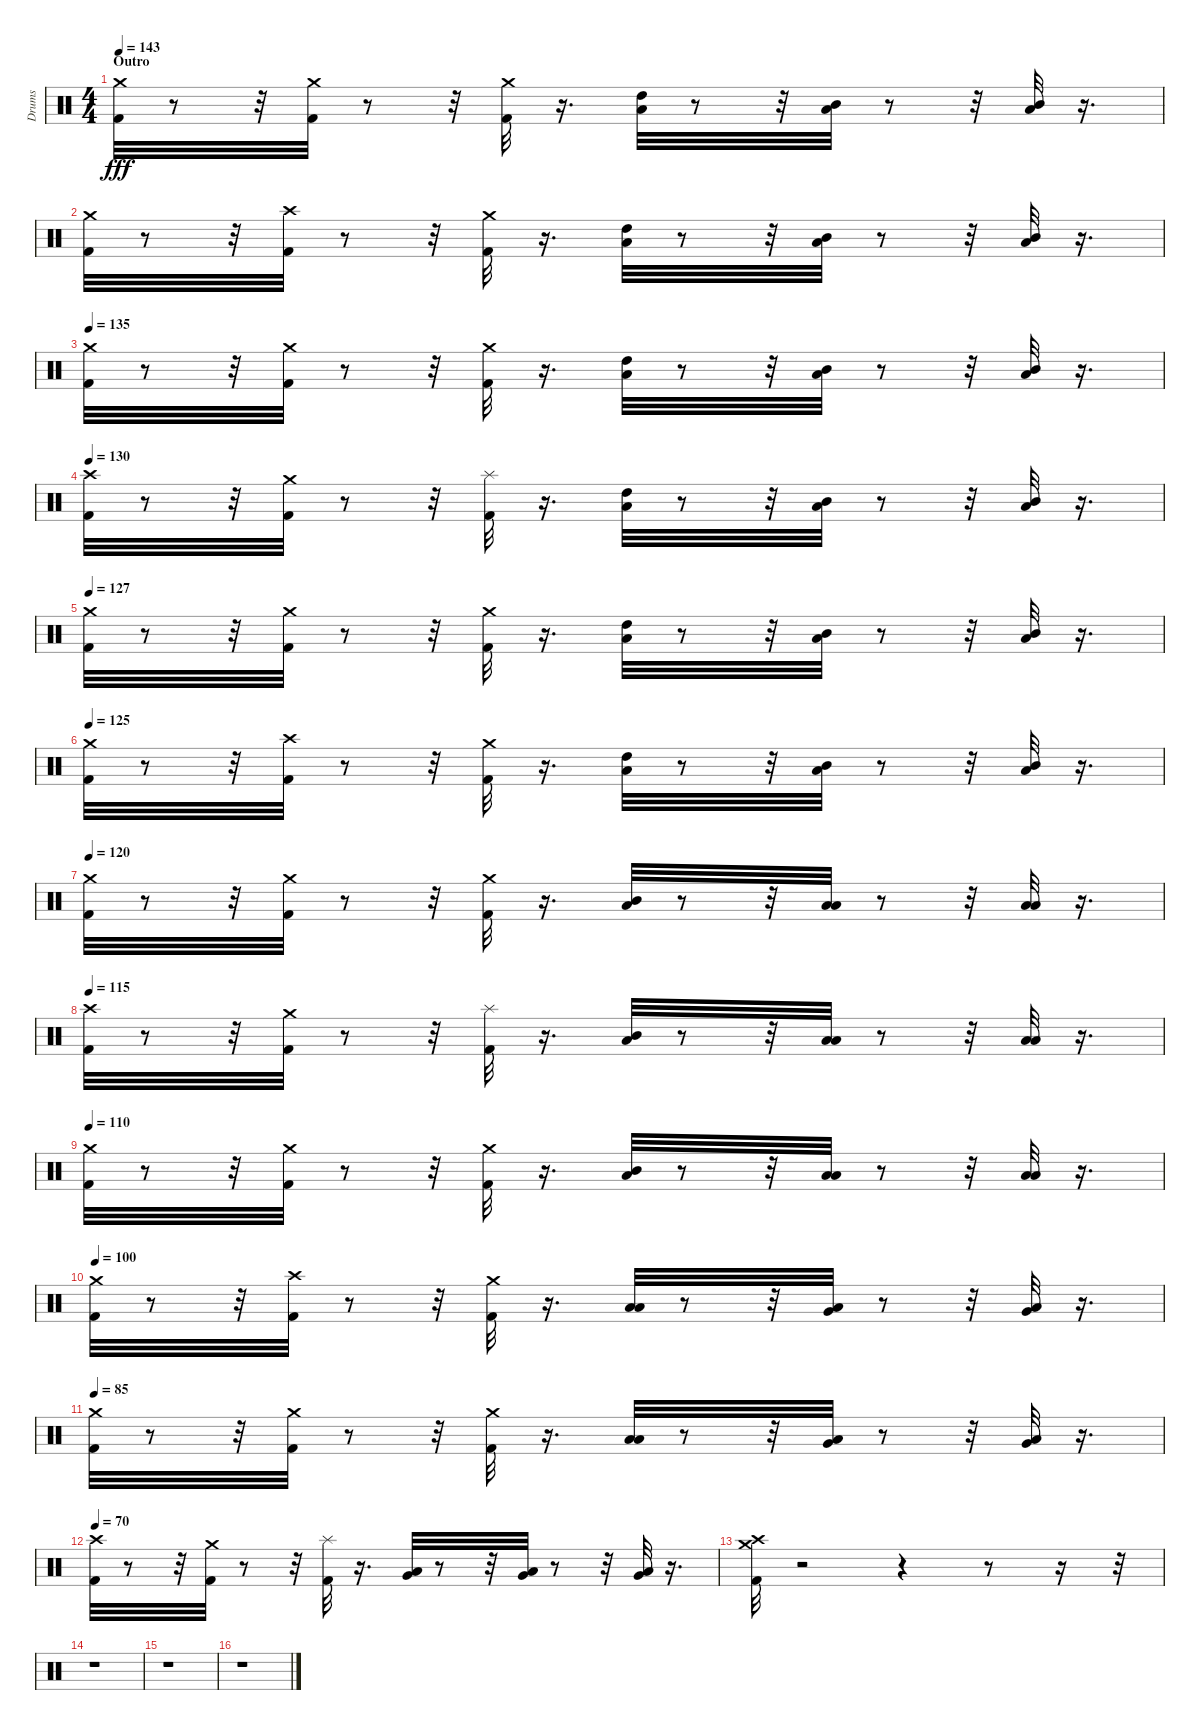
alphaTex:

\track ("Drums" "Drums") {instrument percussion}
\staff {score}
\articulation defaults
\ts (4 4)
\section ("" "Outro")
\tempo 143
\clef neutral
\ks c
("Crash medium (hit)" "Kick (hit) 2").32{dy fff} r.8 r.32 ("Crash medium (hit)" "Kick (hit) 2").32 r.8 r.32 ("Crash medium (hit)" "Kick (hit) 2").32 r.16{d} ("High Tom (hit)" "Low Floor Tom (hit)").32 r.8 r.32 ("Mid Tom (hit)" "Low Floor Tom (hit)").32 r.8 r.32 ("Mid Tom (hit)" "Low Floor Tom (hit)").32 r.16{d} |
("Crash medium (hit)" "Kick (hit) 2").32 r.8 r.32 ("Crash high (hit)" "Kick (hit) 2").32 r.8 r.32 ("Crash medium (hit)" "Kick (hit) 2").32 r.16{d} ("High Tom (hit)" "Low Floor Tom (hit)").32 r.8 r.32 ("Mid Tom (hit)" "Low Floor Tom (hit)").32 r.8 r.32 ("Mid Tom (hit)" "Low Floor Tom (hit)").32 r.16{d} |
\tempo 140
\tempo 135
("Crash medium (hit)" "Kick (hit) 2").32 r.8 r.32 ("Crash medium (hit)" "Kick (hit) 2").32 r.8 r.32 ("Crash medium (hit)" "Kick (hit) 2").32 r.16{d} ("High Tom (hit)" "Low Floor Tom (hit)").32 r.8 r.32 ("Mid Tom (hit)" "Low Floor Tom (hit)").32 r.8 r.32 ("Mid Tom (hit)" "Low Floor Tom (hit)").32 r.16{d} |
\tempo 135
\tempo 130
("Crash high (hit)" "Kick (hit) 2").32 r.8 r.32 ("Crash medium (hit)" "Kick (hit) 2").32 r.8 r.32 ("Splash (hit)" "Kick (hit) 2").32 r.16{d} ("High Tom (hit)" "Low Floor Tom (hit)").32 r.8 r.32 ("Mid Tom (hit)" "Low Floor Tom (hit)").32 r.8 r.32 ("Mid Tom (hit)" "Low Floor Tom (hit)").32 r.16{d} |
\tempo 127
("Crash medium (hit)" "Kick (hit) 2").32 r.8 r.32 ("Crash medium (hit)" "Kick (hit) 2").32 r.8 r.32 ("Crash medium (hit)" "Kick (hit) 2").32 r.16{d} ("High Tom (hit)" "Low Floor Tom (hit)").32 r.8 r.32 ("Mid Tom (hit)" "Low Floor Tom (hit)").32 r.8 r.32 ("Mid Tom (hit)" "Low Floor Tom (hit)").32 r.16{d} |
\tempo 125
("Crash medium (hit)" "Kick (hit) 2").32 r.8 r.32 ("Crash high (hit)" "Kick (hit) 2").32 r.8 r.32 ("Crash medium (hit)" "Kick (hit) 2").32 r.16{d} ("High Tom (hit)" "Low Floor Tom (hit)").32 r.8 r.32 ("Mid Tom (hit)" "Low Floor Tom (hit)").32 r.8 r.32 ("Mid Tom (hit)" "Low Floor Tom (hit)").32 r.16{d} |
\tempo 130
\tempo 120
("Crash medium (hit)" "Kick (hit) 2").32 r.8 r.32 ("Crash medium (hit)" "Kick (hit) 2").32 r.8 r.32 ("Crash medium (hit)" "Kick (hit) 2").32 r.16{d} ("Mid Tom (hit)" "Low Floor Tom (hit)").32 r.8 r.32 ("Low Tom (hit)" "Low Floor Tom (hit)").32 r.8 r.32 ("Low Tom (hit)" "Low Floor Tom (hit)").32 r.16{d} |
\tempo 120
\tempo 115
("Crash high (hit)" "Kick (hit) 2").32 r.8 r.32 ("Crash medium (hit)" "Kick (hit) 2").32 r.8 r.32 ("Splash (hit)" "Kick (hit) 2").32 r.16{d} ("Mid Tom (hit)" "Low Floor Tom (hit)").32 r.8 r.32 ("Low Tom (hit)" "Low Floor Tom (hit)").32 r.8 r.32 ("Low Tom (hit)" "Low Floor Tom (hit)").32 r.16{d} |
\tempo 110
("Crash medium (hit)" "Kick (hit) 2").32 r.8 r.32 ("Crash medium (hit)" "Kick (hit) 2").32 r.8 r.32 ("Crash medium (hit)" "Kick (hit) 2").32 r.16{d} ("Mid Tom (hit)" "Low Floor Tom (hit)").32 r.8 r.32 ("Low Tom (hit)" "Low Floor Tom (hit)").32 r.8 r.32 ("Low Tom (hit)" "Low Floor Tom (hit)").32 r.16{d} |
\tempo 100
("Crash medium (hit)" "Kick (hit) 2").32 r.8 r.32 ("Crash high (hit)" "Kick (hit) 2").32 r.8 r.32 ("Crash medium (hit)" "Kick (hit) 2").32 r.16{d} ("Low Tom (hit)" "Low Floor Tom (hit)").32 r.8 r.32 ("Very Low Tom (hit)" "Low Floor Tom (hit)").32 r.8 r.32 ("Very Low Tom (hit)" "Low Floor Tom (hit)").32 r.16{d} |
\tempo 100
\tempo 85
("Crash medium (hit)" "Kick (hit) 2").32 r.8 r.32 ("Crash medium (hit)" "Kick (hit) 2").32 r.8 r.32 ("Crash medium (hit)" "Kick (hit) 2").32 r.16{d} ("Low Tom (hit)" "Low Floor Tom (hit)").32 r.8 r.32 ("Very Low Tom (hit)" "Low Floor Tom (hit)").32 r.8 r.32 ("Very Low Tom (hit)" "Low Floor Tom (hit)").32 r.16{d} |
\tempo 70
("Crash high (hit)" "Kick (hit) 2").32 r.8 r.32 ("Crash medium (hit)" "Kick (hit) 2").32 r.8 r.32 ("Splash (hit)" "Kick (hit) 2").32 r.16{d} ("Very Low Tom (hit)" "Low Floor Tom (hit)").32 r.8 r.32 ("Very Low Tom (hit)" "Low Floor Tom (hit)").32 r.8 r.32 ("Very Low Tom (hit)" "Low Floor Tom (hit)").32 r.16{d} |
("Crash medium (hit)" "Crash high (hit)" "Kick (hit) 2").32 r.2 r.4 r.8 r.16 r.32 |
r.1 |
r.1 |
r.1
